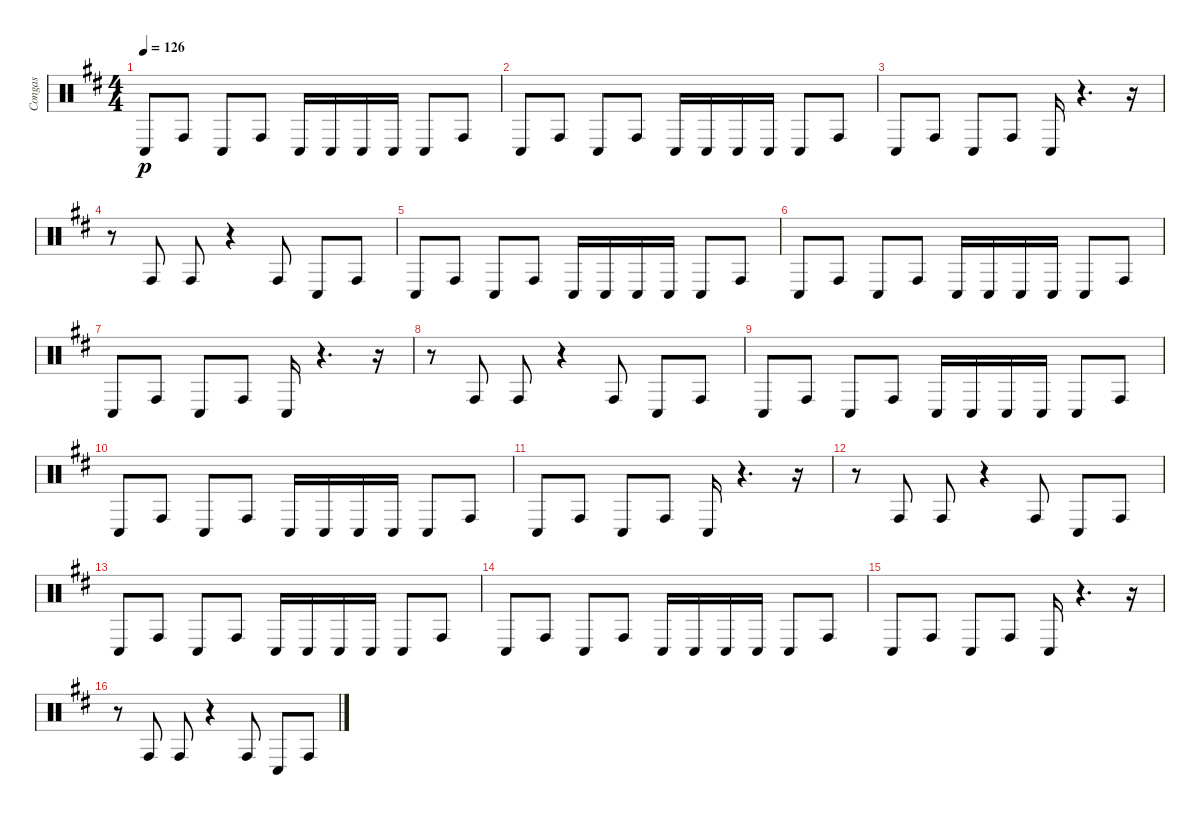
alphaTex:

\track ("Congas" "Congas") {instrument percussion}
\staff {score}
\articulation defaults
\ts (4 4)
\tempo 126
\clef neutral
\ks bminor "Conga low (hit)".8{dy p} "Conga high (hit)".8 "Conga low (hit)".8 "Conga high (hit)".8 "Conga low (hit)".16 "Conga low (hit)".16 "Conga low (hit)".16 "Conga low (hit)".16 "Conga low (hit)".8 "Conga high (hit)".8
|
"Conga low (hit)".8 "Conga high (hit)".8 "Conga low (hit)".8 "Conga high (hit)".8 "Conga low (hit)".16 "Conga low (hit)".16 "Conga low (hit)".16 "Conga low (hit)".16 "Conga low (hit)".8 "Conga high (hit)".8 |
"Conga low (hit)".8 "Conga high (hit)".8 "Conga low (hit)".8 "Conga high (hit)".8 "Conga low (hit)".16 r.4{d} r.16 |
r.8 "Conga high (hit)".8 "Conga high (hit)".8 r.4 "Conga high (hit)".8 "Conga low (hit)".8 "Conga high (hit)".8 |
"Conga low (hit)".8 "Conga high (hit)".8 "Conga low (hit)".8 "Conga high (hit)".8 "Conga low (hit)".16 "Conga low (hit)".16 "Conga low (hit)".16 "Conga low (hit)".16 "Conga low (hit)".8 "Conga high (hit)".8 |
"Conga low (hit)".8 "Conga high (hit)".8 "Conga low (hit)".8 "Conga high (hit)".8 "Conga low (hit)".16 "Conga low (hit)".16 "Conga low (hit)".16 "Conga low (hit)".16 "Conga low (hit)".8 "Conga high (hit)".8 |
"Conga low (hit)".8 "Conga high (hit)".8 "Conga low (hit)".8 "Conga high (hit)".8 "Conga low (hit)".16 r.4{d} r.16 |
r.8 "Conga high (hit)".8 "Conga high (hit)".8 r.4 "Conga high (hit)".8 "Conga low (hit)".8 "Conga high (hit)".8 |
"Conga low (hit)".8 "Conga high (hit)".8 "Conga low (hit)".8 "Conga high (hit)".8 "Conga low (hit)".16 "Conga low (hit)".16 "Conga low (hit)".16 "Conga low (hit)".16 "Conga low (hit)".8 "Conga high (hit)".8 |
"Conga low (hit)".8 "Conga high (hit)".8 "Conga low (hit)".8 "Conga high (hit)".8 "Conga low (hit)".16 "Conga low (hit)".16 "Conga low (hit)".16 "Conga low (hit)".16 "Conga low (hit)".8 "Conga high (hit)".8 |
"Conga low (hit)".8 "Conga high (hit)".8 "Conga low (hit)".8 "Conga high (hit)".8 "Conga low (hit)".16 r.4{d} r.16 |
r.8 "Conga high (hit)".8 "Conga high (hit)".8 r.4 "Conga high (hit)".8 "Conga low (hit)".8 "Conga high (hit)".8 |
"Conga low (hit)".8 "Conga high (hit)".8 "Conga low (hit)".8 "Conga high (hit)".8 "Conga low (hit)".16 "Conga low (hit)".16 "Conga low (hit)".16 "Conga low (hit)".16 "Conga low (hit)".8 "Conga high (hit)".8 |
"Conga low (hit)".8 "Conga high (hit)".8 "Conga low (hit)".8 "Conga high (hit)".8 "Conga low (hit)".16 "Conga low (hit)".16 "Conga low (hit)".16 "Conga low (hit)".16 "Conga low (hit)".8 "Conga high (hit)".8 |
"Conga low (hit)".8 "Conga high (hit)".8 "Conga low (hit)".8 "Conga high (hit)".8 "Conga low (hit)".16 r.4{d} r.16 |
r.8 "Conga high (hit)".8 "Conga high (hit)".8 r.4 "Conga high (hit)".8 "Conga low (hit)".8 "Conga high (hit)".8
